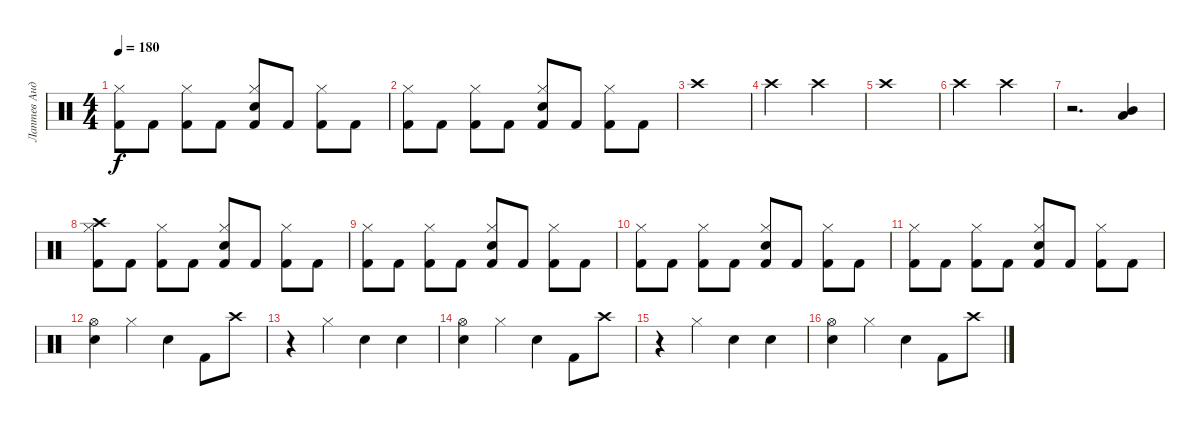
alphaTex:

\track ("Лаптев Андрей" "Лаптев Анд") {instrument percussion}
\staff {score}
\articulation defaults
\ts (4 4)
\tempo 180
\clef neutral
\ks c
("Kick (hit) 2" "Hi-Hat (closed)").8{dy f} "Kick (hit) 2".8 ("Kick (hit) 2" "Hi-Hat (closed)").8 "Kick (hit) 2".8 ("Snare (hit) 2" "Kick (hit) 2" "Hi-Hat (closed)").8 "Kick (hit) 2".8 ("Kick (hit) 2" "Hi-Hat (closed)").8 "Kick (hit) 2".8 |
("Kick (hit) 2" "Hi-Hat (closed)").8 "Kick (hit) 2".8 ("Kick (hit) 2" "Hi-Hat (closed)").8 "Kick (hit) 2".8 ("Snare (hit) 2" "Kick (hit) 2" "Hi-Hat (closed)").8 "Kick (hit) 2".8 ("Kick (hit) 2" "Hi-Hat (closed)").8 "Kick (hit) 2".8 |
"Crash high (hit)".1 |
"Crash high (hit)".2 "Crash high (hit)".2 |
"Crash high (hit)".1 |
"Crash high (hit)".2 "Crash high (hit)".2 |
r.2{d} ("Mid Tom (hit)" "Low Tom (hit)").4 |
("Kick (hit) 2" "Hi-Hat (closed)" "Crash high (hit)").8 "Kick (hit) 2".8 ("Kick (hit) 2" "Hi-Hat (closed)").8 "Kick (hit) 2".8 ("Snare (hit) 2" "Kick (hit) 2" "Hi-Hat (closed)").8 "Kick (hit) 2".8 ("Kick (hit) 2" "Hi-Hat (closed)").8 "Kick (hit) 2".8 |
("Kick (hit) 2" "Hi-Hat (closed)").8 "Kick (hit) 2".8 ("Kick (hit) 2" "Hi-Hat (closed)").8 "Kick (hit) 2".8 ("Snare (hit) 2" "Kick (hit) 2" "Hi-Hat (closed)").8 "Kick (hit) 2".8 ("Kick (hit) 2" "Hi-Hat (closed)").8 "Kick (hit) 2".8 |
("Kick (hit) 2" "Hi-Hat (closed)").8 "Kick (hit) 2".8 ("Kick (hit) 2" "Hi-Hat (closed)").8 "Kick (hit) 2".8 ("Snare (hit) 2" "Kick (hit) 2" "Hi-Hat (closed)").8 "Kick (hit) 2".8 ("Kick (hit) 2" "Hi-Hat (closed)").8 "Kick (hit) 2".8 |
("Kick (hit) 2" "Hi-Hat (closed)").8 "Kick (hit) 2".8 ("Kick (hit) 2" "Hi-Hat (closed)").8 "Kick (hit) 2".8 ("Snare (hit) 2" "Kick (hit) 2" "Hi-Hat (closed)").8 "Kick (hit) 2".8 ("Kick (hit) 2" "Hi-Hat (closed)").8 "Kick (hit) 2".8 |
("Snare (hit) 2" "Hi-Hat (open)").4 "Hi-Hat (closed)".4 "Snare (hit) 2".4 "Kick (hit) 2".8 "Crash high (hit)".8 |
r.4 "Hi-Hat (closed)".4 "Snare (hit) 2".4 "Snare (hit) 2".4 |
("Snare (hit) 2" "Hi-Hat (open)").4 "Hi-Hat (closed)".4 "Snare (hit) 2".4 "Kick (hit) 2".8 "Crash high (hit)".8 |
r.4 "Hi-Hat (closed)".4 "Snare (hit) 2".4 "Snare (hit) 2".4 |
("Snare (hit) 2" "Hi-Hat (open)").4 "Hi-Hat (closed)".4 "Snare (hit) 2".4 "Kick (hit) 2".8 "Crash high (hit)".8
